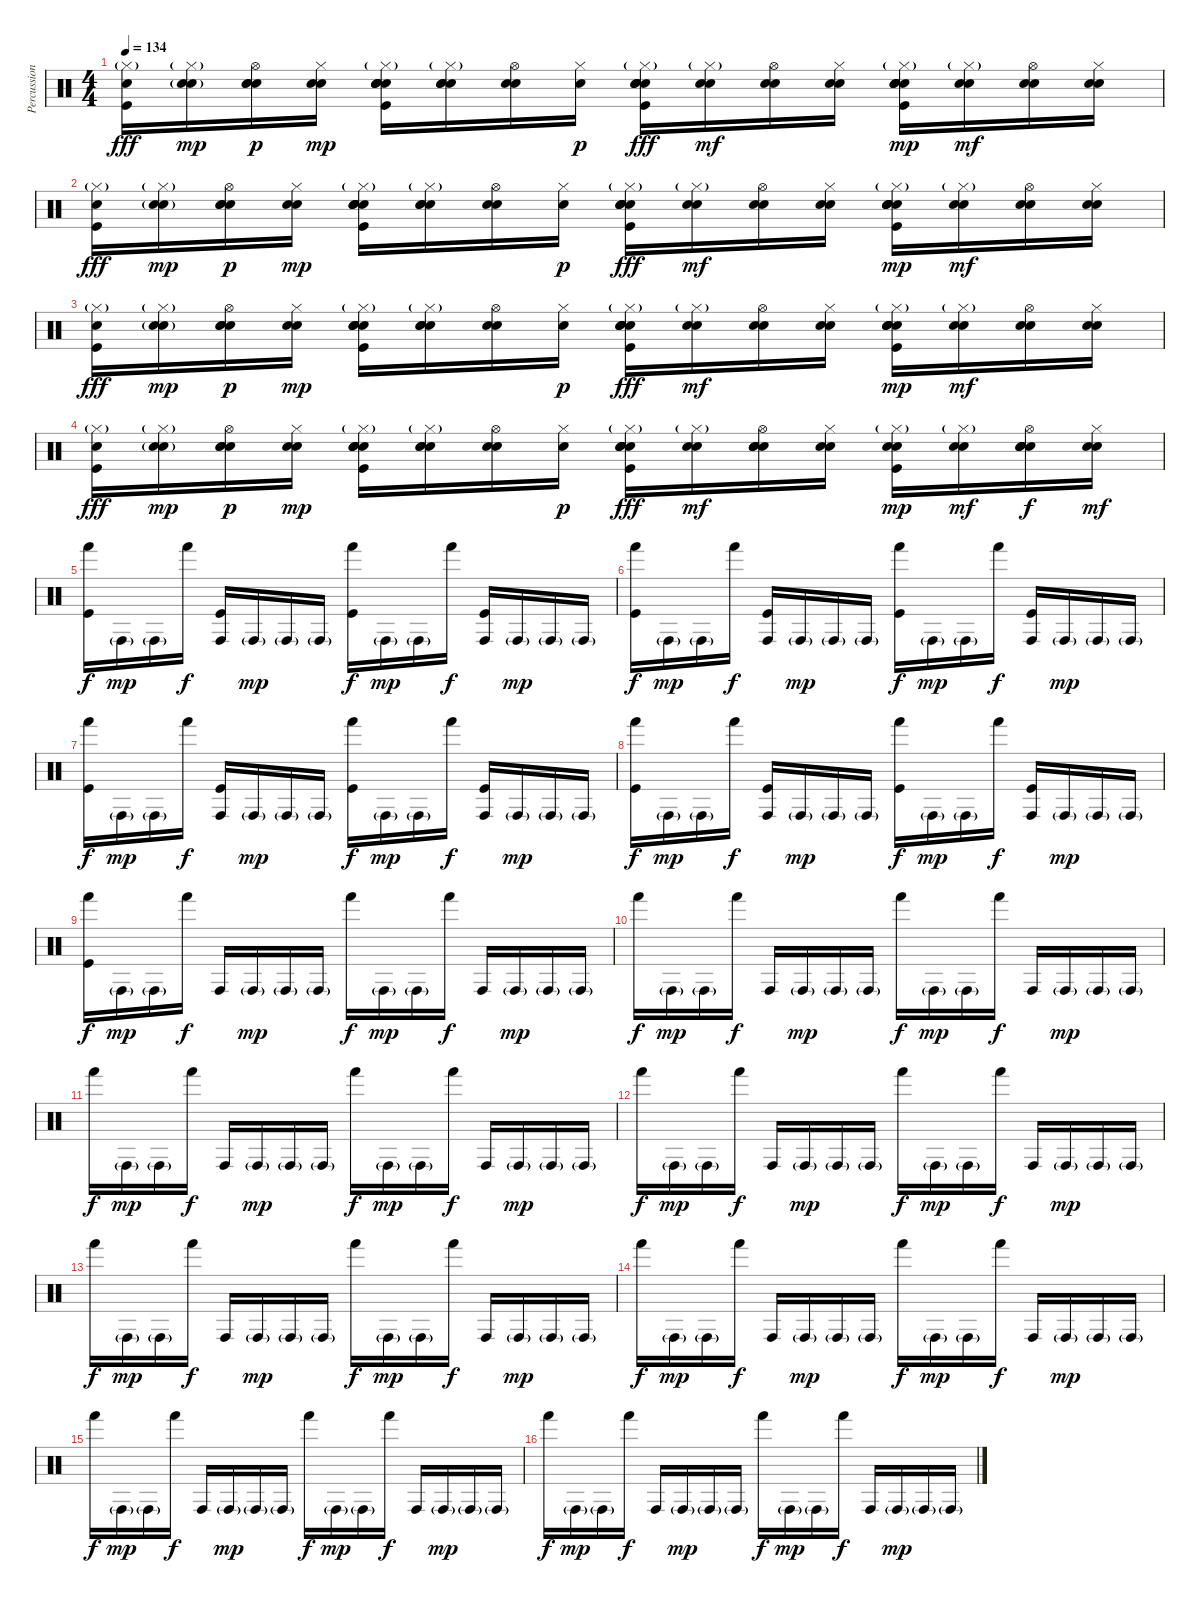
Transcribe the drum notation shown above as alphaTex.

\track ("Percussion" "Percussion") {instrument percussion}
\staff {score}
\articulation defaults
\ts (4 4)
\tempo 134
\clef neutral
\ks c
("Electric Snare (hit)" "Hi-Hat (closed)"{g} "Kick (hit)").16{dy fff} ("Electric Snare (hit)" "Hi-Hat (closed)"{g} "Electric Snare (hit)"{g}).16{dy mp} ("Electric Snare (hit)" "Hi-Hat (open)" "Electric Snare (hit)" "Snare (hit) 2").16{dy p} ("Electric Snare (hit)" "Hi-Hat (closed)" "Snare (hit) 2").16{dy mp} ("Electric Snare (hit)" "Hi-Hat (closed)"{g} "Hand Clap (hit)" "Hand Clap (hit)" "Hand Clap (hit)" "Kick (hit)").16 ("Electric Snare (hit)" "Hi-Hat (closed)"{g} "Electric Snare (hit)" "Snare (hit) 2").16 ("Electric Snare (hit)" "Hi-Hat (open)" "Snare (hit) 2").16 ("Electric Snare (hit)" "Hi-Hat (closed)").16{dy p} ("Electric Snare (hit)" "Hi-Hat (closed)"{g} "Snare (hit) 2" "Snare (hit) 2" "Snare (hit) 2" "Kick (hit)").16{dy fff} ("Electric Snare (hit)" "Hi-Hat (closed)"{g} "Snare (hit) 2").16{dy mf} ("Electric Snare (hit)" "Hi-Hat (open)" "Snare (hit) 2").16 ("Electric Snare (hit)" "Hi-Hat (closed)" "Snare (hit) 2").16 ("Electric Snare (hit)" "Hi-Hat (closed)"{g} "Hand Clap (hit)" "Hand Clap (hit)" "Hand Clap (hit)" "Kick (hit)").16{dy mp} ("Electric Snare (hit)" "Hi-Hat (closed)"{g} "Snare (hit) 2").16{dy mf} ("Electric Snare (hit)" "Hi-Hat (open)" "Snare (hit) 2").16 ("Electric Snare (hit)" "Hi-Hat (closed)" "Snare (hit) 2").16 |
("Electric Snare (hit)" "Hi-Hat (closed)"{g} "Kick (hit)").16{dy fff} ("Electric Snare (hit)" "Hi-Hat (closed)"{g} "Electric Snare (hit)"{g}).16{dy mp} ("Electric Snare (hit)" "Hi-Hat (open)" "Electric Snare (hit)" "Snare (hit) 2").16{dy p} ("Electric Snare (hit)" "Hi-Hat (closed)" "Snare (hit) 2").16{dy mp} ("Electric Snare (hit)" "Hi-Hat (closed)"{g} "Hand Clap (hit)" "Hand Clap (hit)" "Hand Clap (hit)" "Kick (hit)").16 ("Electric Snare (hit)" "Hi-Hat (closed)"{g} "Electric Snare (hit)" "Snare (hit) 2").16 ("Electric Snare (hit)" "Hi-Hat (open)" "Snare (hit) 2").16 ("Electric Snare (hit)" "Hi-Hat (closed)").16{dy p} ("Electric Snare (hit)" "Hi-Hat (closed)"{g} "Snare (hit) 2" "Snare (hit) 2" "Snare (hit) 2" "Kick (hit)").16{dy fff} ("Electric Snare (hit)" "Hi-Hat (closed)"{g} "Snare (hit) 2").16{dy mf} ("Electric Snare (hit)" "Hi-Hat (open)" "Snare (hit) 2").16 ("Electric Snare (hit)" "Hi-Hat (closed)" "Snare (hit) 2").16 ("Electric Snare (hit)" "Hi-Hat (closed)"{g} "Hand Clap (hit)" "Hand Clap (hit)" "Hand Clap (hit)" "Kick (hit)").16{dy mp} ("Electric Snare (hit)" "Hi-Hat (closed)"{g} "Snare (hit) 2").16{dy mf} ("Electric Snare (hit)" "Hi-Hat (open)" "Snare (hit) 2").16 ("Electric Snare (hit)" "Hi-Hat (closed)" "Snare (hit) 2").16 |
("Electric Snare (hit)" "Hi-Hat (closed)"{g} "Kick (hit)").16{dy fff} ("Electric Snare (hit)" "Hi-Hat (closed)"{g} "Electric Snare (hit)"{g}).16{dy mp} ("Electric Snare (hit)" "Hi-Hat (open)" "Electric Snare (hit)" "Snare (hit) 2").16{dy p} ("Electric Snare (hit)" "Hi-Hat (closed)" "Snare (hit) 2").16{dy mp} ("Electric Snare (hit)" "Hi-Hat (closed)"{g} "Hand Clap (hit)" "Hand Clap (hit)" "Hand Clap (hit)" "Kick (hit)").16 ("Electric Snare (hit)" "Hi-Hat (closed)"{g} "Electric Snare (hit)" "Snare (hit) 2").16 ("Electric Snare (hit)" "Hi-Hat (open)" "Snare (hit) 2").16 ("Electric Snare (hit)" "Hi-Hat (closed)").16{dy p} ("Electric Snare (hit)" "Hi-Hat (closed)"{g} "Snare (hit) 2" "Snare (hit) 2" "Snare (hit) 2" "Kick (hit)").16{dy fff} ("Electric Snare (hit)" "Hi-Hat (closed)"{g} "Snare (hit) 2").16{dy mf} ("Electric Snare (hit)" "Hi-Hat (open)" "Snare (hit) 2").16 ("Electric Snare (hit)" "Hi-Hat (closed)" "Snare (hit) 2").16 ("Electric Snare (hit)" "Hi-Hat (closed)"{g} "Hand Clap (hit)" "Hand Clap (hit)" "Hand Clap (hit)" "Kick (hit)").16{dy mp} ("Electric Snare (hit)" "Hi-Hat (closed)"{g} "Snare (hit) 2").16{dy mf} ("Electric Snare (hit)" "Hi-Hat (open)" "Snare (hit) 2").16 ("Electric Snare (hit)" "Hi-Hat (closed)" "Snare (hit) 2").16 |
("Electric Snare (hit)" "Hi-Hat (closed)"{g} "Kick (hit)").16{dy fff} ("Electric Snare (hit)" "Hi-Hat (closed)"{g} "Electric Snare (hit)"{g}).16{dy mp} ("Electric Snare (hit)" "Hi-Hat (open)" "Electric Snare (hit)" "Snare (hit) 2").16{dy p} ("Electric Snare (hit)" "Hi-Hat (closed)" "Snare (hit) 2").16{dy mp} ("Electric Snare (hit)" "Hi-Hat (closed)"{g} "Hand Clap (hit)" "Hand Clap (hit)" "Hand Clap (hit)" "Kick (hit)").16 ("Electric Snare (hit)" "Hi-Hat (closed)"{g} "Electric Snare (hit)" "Snare (hit) 2").16 ("Electric Snare (hit)" "Hi-Hat (open)" "Snare (hit) 2").16 ("Electric Snare (hit)" "Hi-Hat (closed)").16{dy p} ("Electric Snare (hit)" "Hi-Hat (closed)"{g} "Snare (hit) 2" "Snare (hit) 2" "Snare (hit) 2" "Kick (hit)").16{dy fff} ("Electric Snare (hit)" "Hi-Hat (closed)"{g} "Snare (hit) 2").16{dy mf} ("Electric Snare (hit)" "Hi-Hat (open)" "Hand Clap (hit)" "Hand Clap (hit)" "Hand Clap (hit)").16 ("Electric Snare (hit)" "Hi-Hat (closed)" "Snare (hit) 2").16 ("Electric Snare (hit)" "Hi-Hat (closed)"{g} "Snare (hit) 2" "Kick (hit)").16{dy mp} ("Electric Snare (hit)" "Hi-Hat (closed)"{g} "Snare (hit) 2").16{dy mf} ("Electric Snare (hit)" "Hi-Hat (open)" "Snare (hit) 2" "Snare (hit) 2" "Hand Clap (hit)").16{dy f} ("Electric Snare (hit)" "Hi-Hat (closed)" "Snare (hit) 2").16{dy mf} |
("Hand (hit)" "Kick (hit)").16{dy f} "Conga high (hit)"{g}.16{dy mp} "Conga high (hit)"{g}.16 "Hand (hit)".16{dy f} ("Conga high (hit)" "Kick (hit)").16 "Conga high (hit)"{g}.16{dy mp} "Conga high (hit)"{g}.16 "Conga high (hit)"{g}.16 ("Hand (hit)" "Kick (hit)").16{dy f} "Conga high (hit)"{g}.16{dy mp} "Conga high (hit)"{g}.16 "Hand (hit)".16{dy f} ("Conga high (hit)" "Kick (hit)").16 "Conga high (hit)"{g}.16{dy mp} "Conga high (hit)"{g}.16 "Conga high (hit)"{g}.16 |
("Hand (hit)" "Kick (hit)").16{dy f} "Conga high (hit)"{g}.16{dy mp} "Conga high (hit)"{g}.16 "Hand (hit)".16{dy f} ("Conga high (hit)" "Kick (hit)").16 "Conga high (hit)"{g}.16{dy mp} "Conga high (hit)"{g}.16 "Conga high (hit)"{g}.16 ("Hand (hit)" "Kick (hit)").16{dy f} "Conga high (hit)"{g}.16{dy mp} "Conga high (hit)"{g}.16 "Hand (hit)".16{dy f} ("Conga high (hit)" "Kick (hit)").16 "Conga high (hit)"{g}.16{dy mp} "Conga high (hit)"{g}.16 "Conga high (hit)"{g}.16 |
("Hand (hit)" "Kick (hit)").16{dy f} "Conga high (hit)"{g}.16{dy mp} "Conga high (hit)"{g}.16 "Hand (hit)".16{dy f} ("Conga high (hit)" "Kick (hit)").16 "Conga high (hit)"{g}.16{dy mp} "Conga high (hit)"{g}.16 "Conga high (hit)"{g}.16 ("Hand (hit)" "Kick (hit)").16{dy f} "Conga high (hit)"{g}.16{dy mp} "Conga high (hit)"{g}.16 "Hand (hit)".16{dy f} ("Conga high (hit)" "Kick (hit)").16 "Conga high (hit)"{g}.16{dy mp} "Conga high (hit)"{g}.16 "Conga high (hit)"{g}.16 |
("Hand (hit)" "Kick (hit)").16{dy f} "Conga high (hit)"{g}.16{dy mp} "Conga high (hit)"{g}.16 "Hand (hit)".16{dy f} ("Conga high (hit)" "Kick (hit)").16 "Conga high (hit)"{g}.16{dy mp} "Conga high (hit)"{g}.16 "Conga high (hit)"{g}.16 ("Hand (hit)" "Kick (hit)").16{dy f} "Conga high (hit)"{g}.16{dy mp} "Conga high (hit)"{g}.16 "Hand (hit)".16{dy f} ("Conga high (hit)" "Kick (hit)").16 "Conga high (hit)"{g}.16{dy mp} "Conga high (hit)"{g}.16 "Conga high (hit)"{g}.16 |
("Hand (hit)" "Kick (hit)").16{dy f volume 13} "Conga high (hit)"{g}.16{dy mp} "Conga high (hit)"{g}.16 "Hand (hit)".16{dy f} "Conga high (hit)".16 "Conga high (hit)"{g}.16{dy mp} "Conga high (hit)"{g}.16 "Conga high (hit)"{g}.16 "Hand (hit)".16{dy f} "Conga high (hit)"{g}.16{dy mp} "Conga high (hit)"{g}.16 "Hand (hit)".16{dy f} "Conga high (hit)".16 "Conga high (hit)"{g}.16{dy mp} "Conga high (hit)"{g}.16 "Conga high (hit)"{g}.16 |
"Hand (hit)".16{dy f} "Conga high (hit)"{g}.16{dy mp} "Conga high (hit)"{g}.16 "Hand (hit)".16{dy f} "Conga high (hit)".16 "Conga high (hit)"{g}.16{dy mp} "Conga high (hit)"{g}.16 "Conga high (hit)"{g}.16 "Hand (hit)".16{dy f} "Conga high (hit)"{g}.16{dy mp} "Conga high (hit)"{g}.16 "Hand (hit)".16{dy f} "Conga high (hit)".16 "Conga high (hit)"{g}.16{dy mp} "Conga high (hit)"{g}.16 "Conga high (hit)"{g}.16 |
"Hand (hit)".16{dy f} "Conga high (hit)"{g}.16{dy mp} "Conga high (hit)"{g}.16 "Hand (hit)".16{dy f} "Conga high (hit)".16 "Conga high (hit)"{g}.16{dy mp} "Conga high (hit)"{g}.16 "Conga high (hit)"{g}.16 "Hand (hit)".16{dy f} "Conga high (hit)"{g}.16{dy mp} "Conga high (hit)"{g}.16 "Hand (hit)".16{dy f} "Conga high (hit)".16 "Conga high (hit)"{g}.16{dy mp} "Conga high (hit)"{g}.16 "Conga high (hit)"{g}.16 |
"Hand (hit)".16{dy f} "Conga high (hit)"{g}.16{dy mp} "Conga high (hit)"{g}.16 "Hand (hit)".16{dy f} "Conga high (hit)".16 "Conga high (hit)"{g}.16{dy mp} "Conga high (hit)"{g}.16 "Conga high (hit)"{g}.16 "Hand (hit)".16{dy f} "Conga high (hit)"{g}.16{dy mp} "Conga high (hit)"{g}.16 "Hand (hit)".16{dy f} "Conga high (hit)".16 "Conga high (hit)"{g}.16{dy mp} "Conga high (hit)"{g}.16 "Conga high (hit)"{g}.16 |
"Hand (hit)".16{dy f} "Conga high (hit)"{g}.16{dy mp} "Conga high (hit)"{g}.16 "Hand (hit)".16{dy f} "Conga high (hit)".16 "Conga high (hit)"{g}.16{dy mp} "Conga high (hit)"{g}.16 "Conga high (hit)"{g}.16 "Hand (hit)".16{dy f} "Conga high (hit)"{g}.16{dy mp} "Conga high (hit)"{g}.16 "Hand (hit)".16{dy f} "Conga high (hit)".16 "Conga high (hit)"{g}.16{dy mp} "Conga high (hit)"{g}.16 "Conga high (hit)"{g}.16 |
"Hand (hit)".16{dy f} "Conga high (hit)"{g}.16{dy mp} "Conga high (hit)"{g}.16 "Hand (hit)".16{dy f} "Conga high (hit)".16 "Conga high (hit)"{g}.16{dy mp} "Conga high (hit)"{g}.16 "Conga high (hit)"{g}.16 "Hand (hit)".16{dy f} "Conga high (hit)"{g}.16{dy mp} "Conga high (hit)"{g}.16 "Hand (hit)".16{dy f} "Conga high (hit)".16 "Conga high (hit)"{g}.16{dy mp} "Conga high (hit)"{g}.16 "Conga high (hit)"{g}.16 |
"Hand (hit)".16{dy f} "Conga high (hit)"{g}.16{dy mp} "Conga high (hit)"{g}.16 "Hand (hit)".16{dy f} "Conga high (hit)".16 "Conga high (hit)"{g}.16{dy mp} "Conga high (hit)"{g}.16 "Conga high (hit)"{g}.16 "Hand (hit)".16{dy f} "Conga high (hit)"{g}.16{dy mp} "Conga high (hit)"{g}.16 "Hand (hit)".16{dy f} "Conga high (hit)".16 "Conga high (hit)"{g}.16{dy mp} "Conga high (hit)"{g}.16 "Conga high (hit)"{g}.16 |
"Hand (hit)".16{dy f} "Conga high (hit)"{g}.16{dy mp} "Conga high (hit)"{g}.16 "Hand (hit)".16{dy f} "Conga high (hit)".16 "Conga high (hit)"{g}.16{dy mp} "Conga high (hit)"{g}.16 "Conga high (hit)"{g}.16 "Hand (hit)".16{dy f} "Conga high (hit)"{g}.16{dy mp} "Conga high (hit)"{g}.16 "Hand (hit)".16{dy f} "Conga high (hit)".16 "Conga high (hit)"{g}.16{dy mp} "Conga high (hit)"{g}.16 "Conga high (hit)"{g}.16
